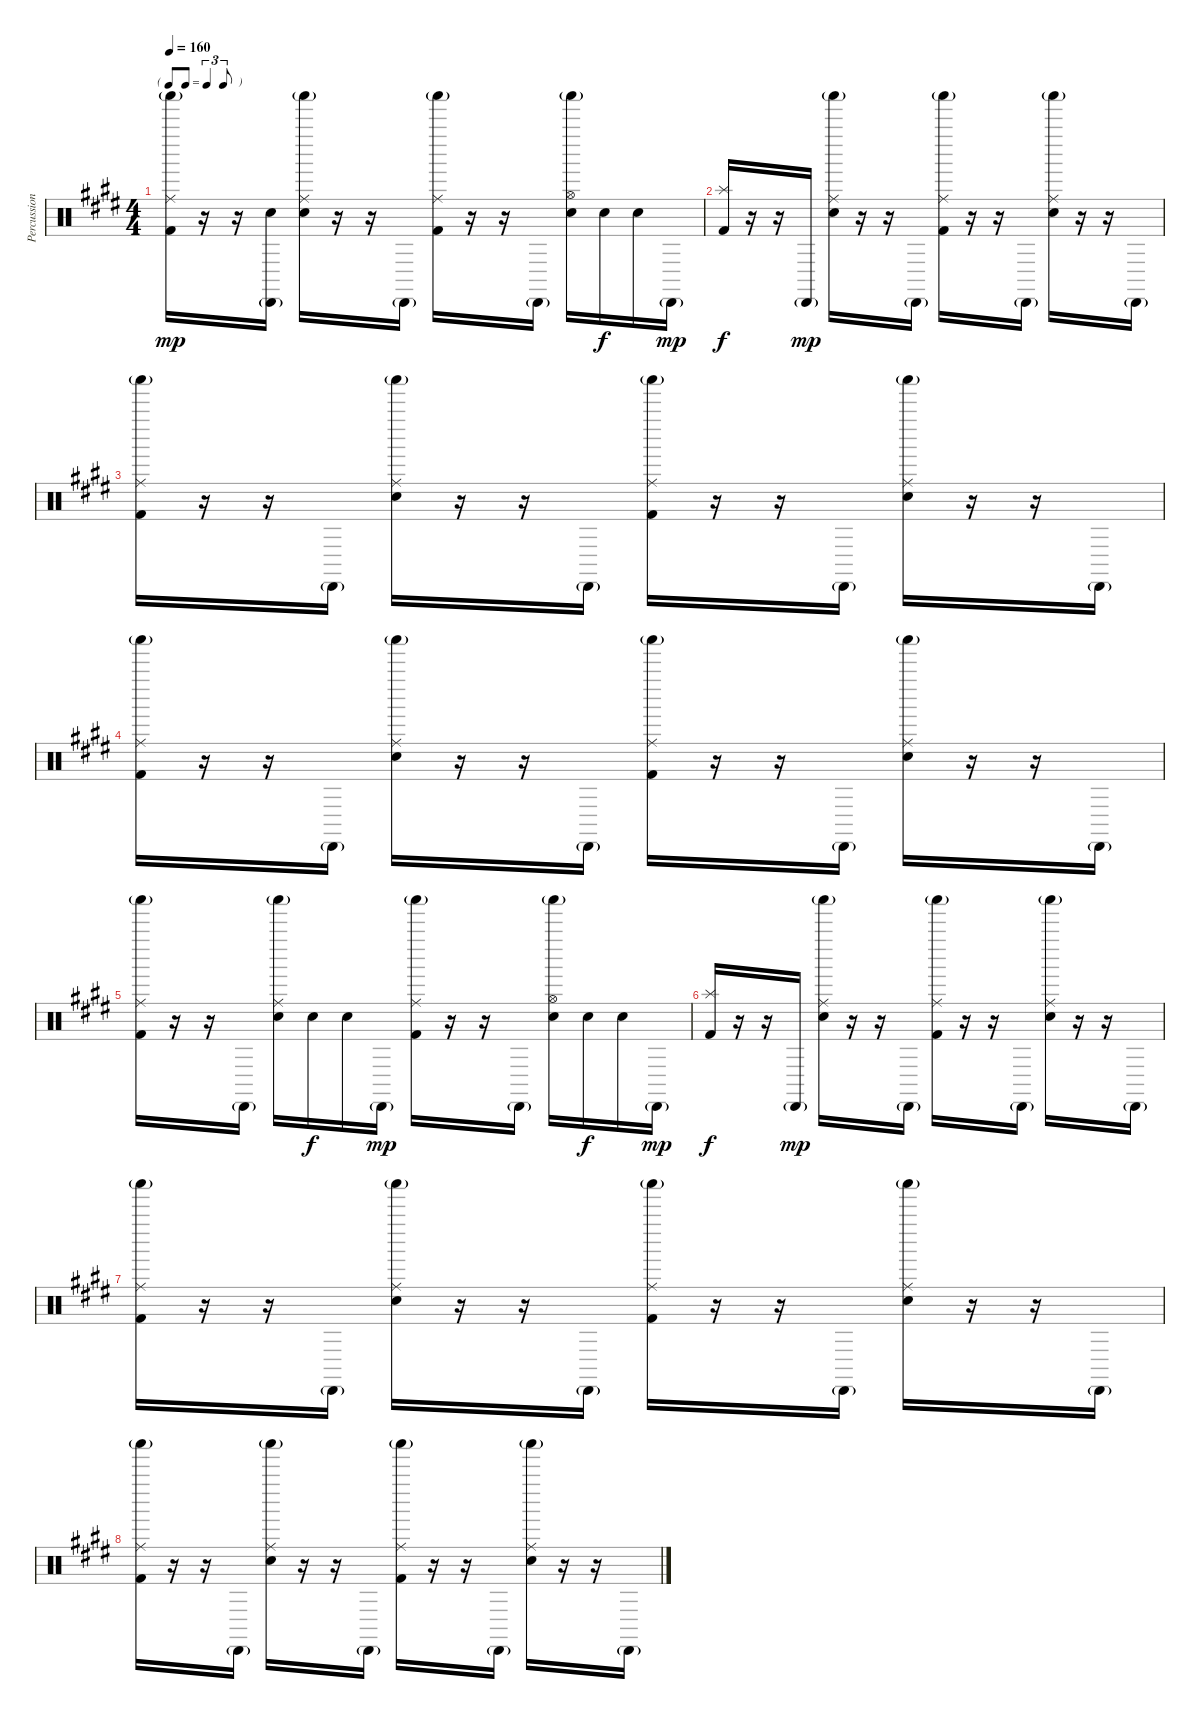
\track ("Percussion" "Percussion") {instrument percussion}
\staff {score}
\articulation defaults
\ts (4 4)
\tf triplet8th
\tempo 160
\clef neutral
\ks e
("Shaker (hit)"{g} "Ride (middle)" "Kick (hit) 2").16{dy mp} r.16 r.16 ("Cabasa (hit)"{g} "Snare (hit) 2").16 ("Shaker (hit)"{g} "Ride (middle)" "Electric Snare (hit)").16 r.16 r.16 "Cabasa (hit)"{g}.16 ("Shaker (hit)"{g} "Ride (middle)" "Kick (hit) 2").16 r.16 r.16 "Cabasa (hit)"{g}.16 ("Shaker (hit)"{g} "Hi-Hat (open)" "Electric Snare (hit)").16 "Electric Snare (hit)".16{dy f} "Electric Snare (hit)".16 "Cabasa (hit)"{g}.16{dy mp} |
("Splash (hit)" "Kick (hit) 2").16{dy f} r.16 r.16 "Cabasa (hit)"{g}.16{dy mp} ("Shaker (hit)"{g} "Ride (middle)" "Electric Snare (hit)").16 r.16 r.16 "Cabasa (hit)"{g}.16 ("Shaker (hit)"{g} "Ride (middle)" "Kick (hit) 2").16 r.16 r.16 "Cabasa (hit)"{g}.16 ("Shaker (hit)"{g} "Ride (middle)" "Electric Snare (hit)").16 r.16 r.16 "Cabasa (hit)"{g}.16 |
("Shaker (hit)"{g} "Ride (middle)" "Kick (hit) 2").16 r.16 r.16 "Cabasa (hit)"{g}.16 ("Shaker (hit)"{g} "Ride (middle)" "Electric Snare (hit)").16 r.16 r.16 "Cabasa (hit)"{g}.16 ("Shaker (hit)"{g} "Ride (middle)" "Kick (hit) 2").16 r.16 r.16 "Cabasa (hit)"{g}.16 ("Shaker (hit)"{g} "Ride (middle)" "Electric Snare (hit)").16 r.16 r.16 "Cabasa (hit)"{g}.16 |
("Shaker (hit)"{g} "Ride (middle)" "Kick (hit) 2").16 r.16 r.16 "Cabasa (hit)"{g}.16 ("Shaker (hit)"{g} "Ride (middle)" "Electric Snare (hit)").16 r.16 r.16 "Cabasa (hit)"{g}.16 ("Shaker (hit)"{g} "Ride (middle)" "Kick (hit) 2").16 r.16 r.16 "Cabasa (hit)"{g}.16 ("Shaker (hit)"{g} "Ride (middle)" "Electric Snare (hit)").16 r.16 r.16 "Cabasa (hit)"{g}.16 |
("Shaker (hit)"{g} "Ride (middle)" "Kick (hit) 2").16 r.16 r.16 "Cabasa (hit)"{g}.16 ("Shaker (hit)"{g} "Ride (middle)" "Snare (hit) 2").16 "Snare (hit) 2".16{dy f} "Snare (hit) 2".16 "Cabasa (hit)"{g}.16{dy mp} ("Shaker (hit)"{g} "Ride (middle)" "Kick (hit) 2").16 r.16 r.16 "Cabasa (hit)"{g}.16 ("Shaker (hit)"{g} "Hi-Hat (open)" "Electric Snare (hit)").16 "Electric Snare (hit)".16{dy f} "Electric Snare (hit)".16 "Cabasa (hit)"{g}.16{dy mp} |
("Splash (hit)" "Kick (hit) 2").16{dy f} r.16 r.16 "Cabasa (hit)"{g}.16{dy mp} ("Shaker (hit)"{g} "Ride (middle)" "Electric Snare (hit)").16 r.16 r.16 "Cabasa (hit)"{g}.16 ("Shaker (hit)"{g} "Ride (middle)" "Kick (hit) 2").16 r.16 r.16 "Cabasa (hit)"{g}.16 ("Shaker (hit)"{g} "Ride (middle)" "Electric Snare (hit)").16 r.16 r.16 "Cabasa (hit)"{g}.16 |
("Shaker (hit)"{g} "Ride (middle)" "Kick (hit) 2").16 r.16 r.16 "Cabasa (hit)"{g}.16 ("Shaker (hit)"{g} "Ride (middle)" "Electric Snare (hit)").16 r.16 r.16 "Cabasa (hit)"{g}.16 ("Shaker (hit)"{g} "Ride (middle)" "Kick (hit) 2").16 r.16 r.16 "Cabasa (hit)"{g}.16 ("Shaker (hit)"{g} "Ride (middle)" "Electric Snare (hit)").16 r.16 r.16 "Cabasa (hit)"{g}.16 |
("Shaker (hit)"{g} "Ride (middle)" "Kick (hit) 2").16 r.16 r.16 "Cabasa (hit)"{g}.16 ("Shaker (hit)"{g} "Ride (middle)" "Electric Snare (hit)").16 r.16 r.16 "Cabasa (hit)"{g}.16 ("Shaker (hit)"{g} "Ride (middle)" "Kick (hit) 2").16 r.16 r.16 "Cabasa (hit)"{g}.16 ("Shaker (hit)"{g} "Ride (middle)" "Electric Snare (hit)").16 r.16 r.16 "Cabasa (hit)"{g}.16
